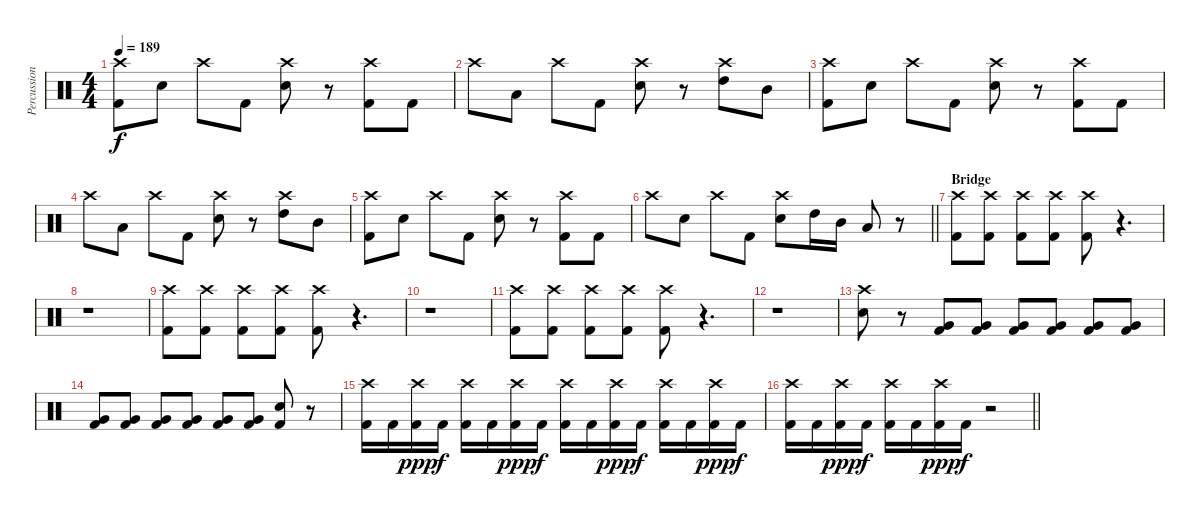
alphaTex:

\track ("Percussion" "Percussion") {instrument percussion}
\staff {score}
\articulation defaults
\ts (4 4)
\tempo 189
\clef neutral
\ks c
("Crash high (hit)" "Kick (hit) 2").8{dy f} "Electric Snare (hit)".8 "Crash high (hit)".8 "Kick (hit) 2".8 ("Crash high (hit)" "Electric Snare (hit)").8 r.8 ("Crash high (hit)" "Kick (hit) 2").8 "Kick (hit) 2".8 |
"Crash high (hit)".8 "Low Tom (hit)".8 "Crash high (hit)".8 "Kick (hit) 2".8 ("Crash high (hit)" "Electric Snare (hit)").8 r.8 ("Crash high (hit)" "High Tom (hit)").8 "Mid Tom (hit)".8 |
("Crash high (hit)" "Kick (hit) 2").8 "Electric Snare (hit)".8 "Crash high (hit)".8 "Kick (hit) 2".8 ("Crash high (hit)" "Electric Snare (hit)").8 r.8 ("Crash high (hit)" "Kick (hit) 2").8 "Kick (hit) 2".8 |
"Crash high (hit)".8 "Low Tom (hit)".8 "Crash high (hit)".8 "Kick (hit) 2".8 ("Crash high (hit)" "Electric Snare (hit)").8 r.8 ("Crash high (hit)" "High Tom (hit)").8 "Mid Tom (hit)".8 |
("Crash high (hit)" "Kick (hit) 2").8 "Electric Snare (hit)".8 "Crash high (hit)".8 "Kick (hit) 2".8 ("Crash high (hit)" "Electric Snare (hit)").8 r.8 ("Crash high (hit)" "Kick (hit) 2").8 "Kick (hit) 2".8 |
\barLineRight lightlight "Crash high (hit)".8 "Electric Snare (hit)".8 "Crash high (hit)".8 "Kick (hit) 2".8
("Crash high (hit)" "Electric Snare (hit)").8 "High Tom (hit)".16 "Mid Tom (hit)".16 "Low Tom (hit)".8 r.8 |
\section ("" "Bridge")
("Crash high (hit)" "Kick (hit) 2").8 ("Crash high (hit)" "Kick (hit) 2").8 ("Crash high (hit)" "Kick (hit) 2").8 ("Crash high (hit)" "Kick (hit) 2").8 ("Crash high (hit)" "Kick (hit) 2").8 r.4{d} |
r.1 |
("Crash high (hit)" "Kick (hit) 2").8 ("Crash high (hit)" "Kick (hit) 2").8 ("Crash high (hit)" "Kick (hit) 2").8 ("Crash high (hit)" "Kick (hit) 2").8 ("Crash high (hit)" "Kick (hit) 2").8 r.4{d} |
r.1 |
("Crash high (hit)" "Kick (hit) 2").8 ("Crash high (hit)" "Kick (hit) 2").8 ("Crash high (hit)" "Kick (hit) 2").8 ("Crash high (hit)" "Kick (hit) 2").8 ("Crash high (hit)" "Kick (hit) 2").8 r.4{d} |
r.1 |
("Crash high (hit)" "Electric Snare (hit)").8 r.8 ("Very Low Tom (hit)" "Kick (hit) 2").8 ("Very Low Tom (hit)" "Kick (hit) 2").8 ("Very Low Tom (hit)" "Kick (hit) 2").8 ("Very Low Tom (hit)" "Kick (hit) 2").8 ("Very Low Tom (hit)" "Kick (hit) 2").8 ("Very Low Tom (hit)" "Kick (hit) 2").8 |
("Very Low Tom (hit)" "Kick (hit) 2").8 ("Very Low Tom (hit)" "Kick (hit) 2").8 ("Very Low Tom (hit)" "Kick (hit) 2").8 ("Very Low Tom (hit)" "Kick (hit) 2").8 ("Very Low Tom (hit)" "Kick (hit) 2").8 ("Very Low Tom (hit)" "Kick (hit) 2").8 ("Electric Snare (hit)" "Kick (hit) 2").8 r.8 |
("Crash high (hit)" "Kick (hit) 2").16 "Kick (hit) 2".16 ("Crash high (hit)" "Kick (hit) 2").16{dy ppp} "Kick (hit) 2".16{dy f} ("Crash high (hit)" "Kick (hit) 2").16 "Kick (hit) 2".16 ("Crash high (hit)" "Kick (hit) 2").16{dy ppp} "Kick (hit) 2".16{dy f} ("Crash high (hit)" "Kick (hit) 2").16 "Kick (hit) 2".16 ("Crash high (hit)" "Kick (hit) 2").16{dy ppp} "Kick (hit) 2".16{dy f} ("Crash high (hit)" "Kick (hit) 2").16 "Kick (hit) 2".16 ("Crash high (hit)" "Kick (hit) 2").16{dy ppp} "Kick (hit) 2".16{dy f} |
\barLineRight lightlight
("Crash high (hit)" "Kick (hit) 2").16 "Kick (hit) 2".16 ("Crash high (hit)" "Kick (hit) 2").16{dy ppp} "Kick (hit) 2".16{dy f} ("Crash high (hit)" "Kick (hit) 2").16 "Kick (hit) 2".16 ("Crash high (hit)" "Kick (hit) 2").16{dy ppp} "Kick (hit) 2".16{dy f} r.2
